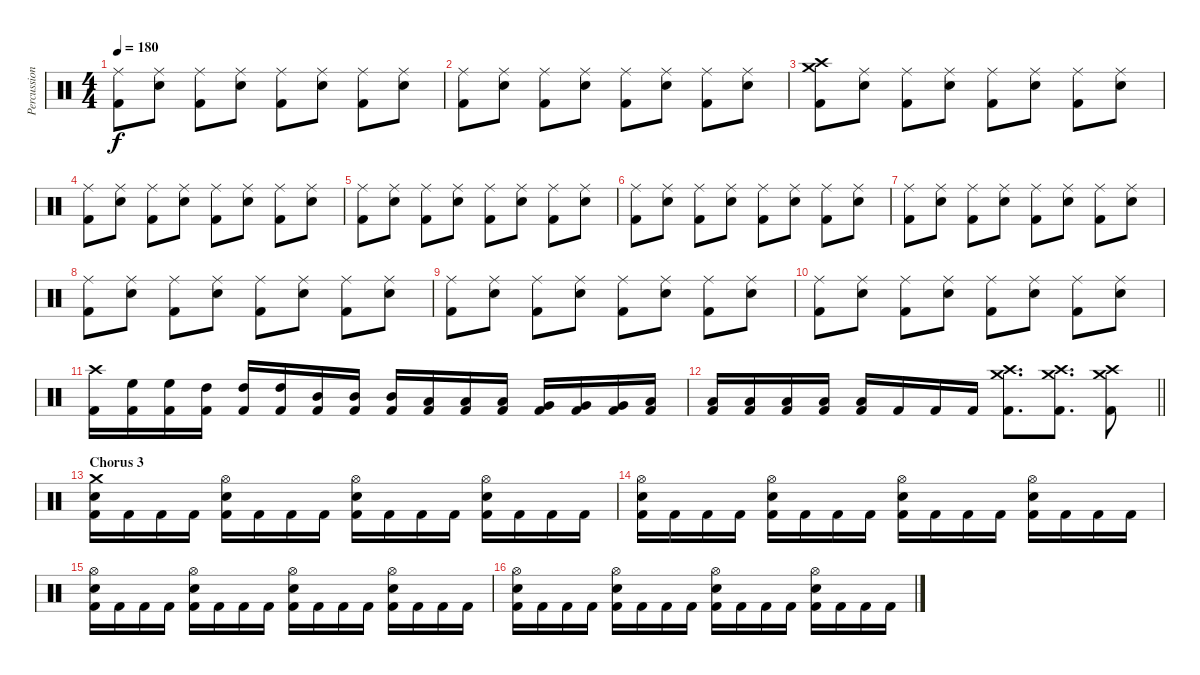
\track ("Percussion" "Percussion") {instrument percussion}
\staff {score}
\articulation defaults
\ts (4 4)
\tempo 180
\clef neutral
\ks c
("Ride (middle)" "Kick (hit) 2").8{dy f} ("Ride (middle)" "Electric Snare (hit)").8 ("Ride (middle)" "Kick (hit) 2").8 ("Ride (middle)" "Electric Snare (hit)").8 ("Ride (middle)" "Kick (hit) 2").8 ("Ride (middle)" "Electric Snare (hit)").8 ("Ride (middle)" "Kick (hit) 2").8 ("Ride (middle)" "Electric Snare (hit)").8 |
("Ride (middle)" "Kick (hit) 2").8 ("Ride (middle)" "Electric Snare (hit)").8 ("Ride (middle)" "Kick (hit) 2").8 ("Ride (middle)" "Electric Snare (hit)").8 ("Ride (middle)" "Kick (hit) 2").8 ("Ride (middle)" "Electric Snare (hit)").8 ("Ride (middle)" "Kick (hit) 2").8 ("Ride (middle)" "Electric Snare (hit)").8 |
("Crash high (hit)" "Crash medium (hit)" "Kick (hit) 2").8 ("Ride (middle)" "Electric Snare (hit)").8 ("Ride (middle)" "Kick (hit) 2").8 ("Ride (middle)" "Electric Snare (hit)").8 ("Ride (middle)" "Kick (hit) 2").8 ("Ride (middle)" "Electric Snare (hit)").8 ("Ride (middle)" "Kick (hit) 2").8 ("Ride (middle)" "Electric Snare (hit)").8 |
("Ride (middle)" "Kick (hit) 2").8 ("Ride (middle)" "Electric Snare (hit)").8 ("Ride (middle)" "Kick (hit) 2").8 ("Ride (middle)" "Electric Snare (hit)").8 ("Ride (middle)" "Kick (hit) 2").8 ("Ride (middle)" "Electric Snare (hit)").8 ("Ride (middle)" "Kick (hit) 2").8 ("Ride (middle)" "Electric Snare (hit)").8 |
("Ride (middle)" "Kick (hit) 2").8 ("Ride (middle)" "Electric Snare (hit)").8 ("Ride (middle)" "Kick (hit) 2").8 ("Ride (middle)" "Electric Snare (hit)").8 ("Ride (middle)" "Kick (hit) 2").8 ("Ride (middle)" "Electric Snare (hit)").8 ("Ride (middle)" "Kick (hit) 2").8 ("Ride (middle)" "Electric Snare (hit)").8 |
("Ride (middle)" "Kick (hit) 2").8 ("Ride (middle)" "Electric Snare (hit)").8 ("Ride (middle)" "Kick (hit) 2").8 ("Ride (middle)" "Electric Snare (hit)").8 ("Ride (middle)" "Kick (hit) 2").8 ("Ride (middle)" "Electric Snare (hit)").8 ("Ride (middle)" "Kick (hit) 2").8 ("Ride (middle)" "Electric Snare (hit)").8 |
("Ride (middle)" "Kick (hit) 2").8 ("Ride (middle)" "Electric Snare (hit)").8 ("Ride (middle)" "Kick (hit) 2").8 ("Ride (middle)" "Electric Snare (hit)").8 ("Ride (middle)" "Kick (hit) 2").8 ("Ride (middle)" "Electric Snare (hit)").8 ("Ride (middle)" "Kick (hit) 2").8 ("Ride (middle)" "Electric Snare (hit)").8 |
("Ride (middle)" "Kick (hit) 2").8 ("Ride (middle)" "Electric Snare (hit)").8 ("Ride (middle)" "Kick (hit) 2").8 ("Ride (middle)" "Electric Snare (hit)").8 ("Ride (middle)" "Kick (hit) 2").8 ("Ride (middle)" "Electric Snare (hit)").8 ("Ride (middle)" "Kick (hit) 2").8 ("Ride (middle)" "Electric Snare (hit)").8 |
("Ride (middle)" "Kick (hit) 2").8 ("Ride (middle)" "Electric Snare (hit)").8 ("Ride (middle)" "Kick (hit) 2").8 ("Ride (middle)" "Electric Snare (hit)").8 ("Ride (middle)" "Kick (hit) 2").8 ("Ride (middle)" "Electric Snare (hit)").8 ("Ride (middle)" "Kick (hit) 2").8 ("Ride (middle)" "Electric Snare (hit)").8 |
("Ride (middle)" "Kick (hit) 2").8 ("Ride (middle)" "Electric Snare (hit)").8 ("Ride (middle)" "Kick (hit) 2").8 ("Ride (middle)" "Electric Snare (hit)").8 ("Ride (middle)" "Kick (hit) 2").8 ("Ride (middle)" "Electric Snare (hit)").8 ("Ride (middle)" "Kick (hit) 2").8 ("Ride (middle)" "Electric Snare (hit)").8 |
("Crash high (hit)" "Kick (hit) 2").16 ("High Floor Tom (hit)" "Kick (hit) 2").16 ("High Floor Tom (hit)" "Kick (hit) 2").16 ("High Tom (hit)" "Kick (hit) 2").16 ("High Tom (hit)" "Kick (hit) 2").16 ("High Tom (hit)" "Kick (hit) 2").16 ("Mid Tom (hit)" "Kick (hit) 2").16 ("Mid Tom (hit)" "Kick (hit) 2").16 ("Mid Tom (hit)" "Kick (hit) 2").16 ("Low Tom (hit)" "Kick (hit) 2").16 ("Low Tom (hit)" "Kick (hit) 2").16 ("Low Tom (hit)" "Kick (hit) 2").16 ("Very Low Tom (hit)" "Kick (hit) 2").16 ("Very Low Tom (hit)" "Kick (hit) 2").16 ("Very Low Tom (hit)" "Kick (hit) 2").16 ("Low Floor Tom (hit)" "Kick (hit) 2").16 |
\barLineRight lightlight
("Low Floor Tom (hit)" "Kick (hit) 2").16 ("Low Floor Tom (hit)" "Kick (hit) 2").16 ("Low Floor Tom (hit)" "Kick (hit) 2").16 ("Low Floor Tom (hit)" "Kick (hit) 2").16 ("Low Floor Tom (hit)" "Kick (hit) 2").16 "Kick (hit) 2".16 "Kick (hit) 2".16 "Kick (hit) 2".16 ("Crash high (hit)" "Crash medium (hit)" "Kick (hit) 2").8{d} ("Crash high (hit)" "Crash medium (hit)" "Kick (hit) 2").8{d} ("Crash high (hit)" "Crash medium (hit)" "Kick (hit) 2").8 |
\section ("" "Chorus 3")
("Crash medium (hit)" "Electric Snare (hit)" "Kick (hit) 2").16 "Kick (hit) 2".16 "Kick (hit) 2".16 "Kick (hit) 2".16 ("Hi-Hat (open)" "Electric Snare (hit)" "Kick (hit) 2").16 "Kick (hit) 2".16 "Kick (hit) 2".16 "Kick (hit) 2".16 ("Hi-Hat (open)" "Electric Snare (hit)" "Kick (hit) 2").16 "Kick (hit) 2".16 "Kick (hit) 2".16 "Kick (hit) 2".16 ("Hi-Hat (open)" "Electric Snare (hit)" "Kick (hit) 2").16 "Kick (hit) 2".16 "Kick (hit) 2".16 "Kick (hit) 2".16 |
("Hi-Hat (open)" "Electric Snare (hit)" "Kick (hit) 2").16 "Kick (hit) 2".16 "Kick (hit) 2".16 "Kick (hit) 2".16 ("Hi-Hat (open)" "Electric Snare (hit)" "Kick (hit) 2").16 "Kick (hit) 2".16 "Kick (hit) 2".16 "Kick (hit) 2".16 ("Hi-Hat (open)" "Electric Snare (hit)" "Kick (hit) 2").16 "Kick (hit) 2".16 "Kick (hit) 2".16 "Kick (hit) 2".16 ("Hi-Hat (open)" "Electric Snare (hit)" "Kick (hit) 2").16 "Kick (hit) 2".16 "Kick (hit) 2".16 "Kick (hit) 2".16 |
("Hi-Hat (open)" "Electric Snare (hit)" "Kick (hit) 2").16 "Kick (hit) 2".16 "Kick (hit) 2".16 "Kick (hit) 2".16 ("Hi-Hat (open)" "Electric Snare (hit)" "Kick (hit) 2").16 "Kick (hit) 2".16 "Kick (hit) 2".16 "Kick (hit) 2".16 ("Hi-Hat (open)" "Electric Snare (hit)" "Kick (hit) 2").16 "Kick (hit) 2".16 "Kick (hit) 2".16 "Kick (hit) 2".16 ("Hi-Hat (open)" "Electric Snare (hit)" "Kick (hit) 2").16 "Kick (hit) 2".16 "Kick (hit) 2".16 "Kick (hit) 2".16 |
("Hi-Hat (open)" "Electric Snare (hit)" "Kick (hit) 2").16 "Kick (hit) 2".16 "Kick (hit) 2".16 "Kick (hit) 2".16 ("Hi-Hat (open)" "Electric Snare (hit)" "Kick (hit) 2").16 "Kick (hit) 2".16 "Kick (hit) 2".16 "Kick (hit) 2".16 ("Hi-Hat (open)" "Electric Snare (hit)" "Kick (hit) 2").16 "Kick (hit) 2".16 "Kick (hit) 2".16 "Kick (hit) 2".16 ("Hi-Hat (open)" "Electric Snare (hit)" "Kick (hit) 2").16 "Kick (hit) 2".16 "Kick (hit) 2".16 "Kick (hit) 2".16
